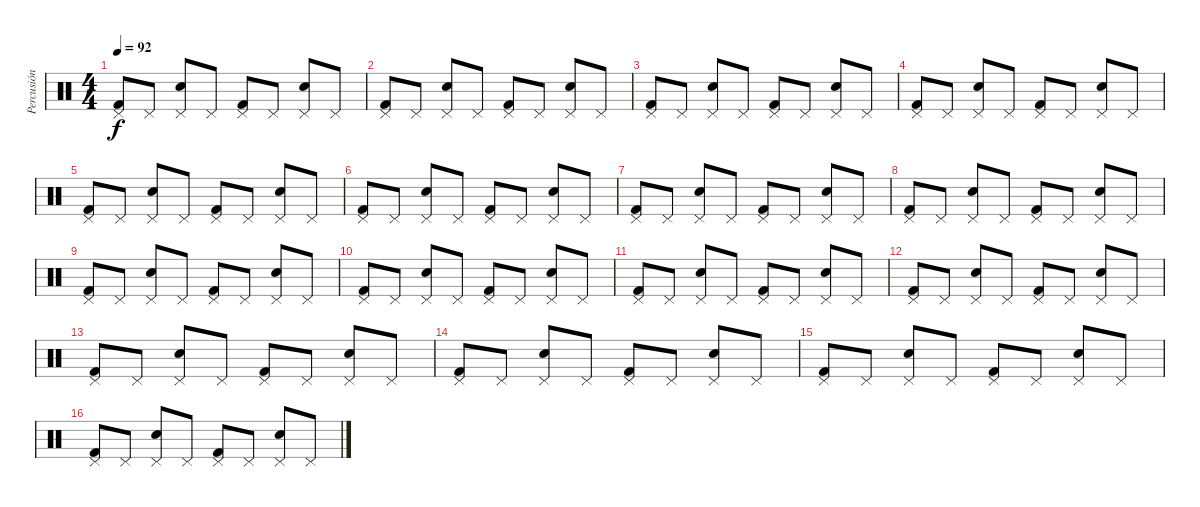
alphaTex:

\track ("Percusión" "Percusión") {instrument percussion}
\staff {score}
\articulation defaults
\ts (4 4)
\tempo 92
\clef neutral
\ks c
("Pedal Hi-Hat (hit)" "Kick (hit) 2").8{dy f} "Pedal Hi-Hat (hit)".8 ("Pedal Hi-Hat (hit)" "Snare (hit) 2").8 "Pedal Hi-Hat (hit)".8 ("Pedal Hi-Hat (hit)" "Kick (hit) 2").8 "Pedal Hi-Hat (hit)".8 ("Pedal Hi-Hat (hit)" "Snare (hit) 2").8 "Pedal Hi-Hat (hit)".8 |
("Pedal Hi-Hat (hit)" "Kick (hit) 2").8 "Pedal Hi-Hat (hit)".8 ("Pedal Hi-Hat (hit)" "Snare (hit) 2").8 "Pedal Hi-Hat (hit)".8 ("Pedal Hi-Hat (hit)" "Kick (hit) 2").8 "Pedal Hi-Hat (hit)".8 ("Pedal Hi-Hat (hit)" "Snare (hit) 2").8 "Pedal Hi-Hat (hit)".8 |
("Pedal Hi-Hat (hit)" "Kick (hit) 2").8 "Pedal Hi-Hat (hit)".8 ("Pedal Hi-Hat (hit)" "Snare (hit) 2").8 "Pedal Hi-Hat (hit)".8 ("Pedal Hi-Hat (hit)" "Kick (hit) 2").8 "Pedal Hi-Hat (hit)".8 ("Pedal Hi-Hat (hit)" "Snare (hit) 2").8 "Pedal Hi-Hat (hit)".8 |
("Pedal Hi-Hat (hit)" "Kick (hit) 2").8 "Pedal Hi-Hat (hit)".8 ("Pedal Hi-Hat (hit)" "Snare (hit) 2").8 "Pedal Hi-Hat (hit)".8 ("Pedal Hi-Hat (hit)" "Kick (hit) 2").8 "Pedal Hi-Hat (hit)".8 ("Pedal Hi-Hat (hit)" "Snare (hit) 2").8 "Pedal Hi-Hat (hit)".8 |
("Pedal Hi-Hat (hit)" "Kick (hit) 2").8 "Pedal Hi-Hat (hit)".8 ("Pedal Hi-Hat (hit)" "Snare (hit) 2").8 "Pedal Hi-Hat (hit)".8 ("Pedal Hi-Hat (hit)" "Kick (hit) 2").8 "Pedal Hi-Hat (hit)".8 ("Pedal Hi-Hat (hit)" "Snare (hit) 2").8 "Pedal Hi-Hat (hit)".8 |
("Pedal Hi-Hat (hit)" "Kick (hit) 2").8 "Pedal Hi-Hat (hit)".8 ("Pedal Hi-Hat (hit)" "Snare (hit) 2").8 "Pedal Hi-Hat (hit)".8 ("Pedal Hi-Hat (hit)" "Kick (hit) 2").8 "Pedal Hi-Hat (hit)".8 ("Pedal Hi-Hat (hit)" "Snare (hit) 2").8 "Pedal Hi-Hat (hit)".8 |
("Pedal Hi-Hat (hit)" "Kick (hit) 2").8 "Pedal Hi-Hat (hit)".8 ("Pedal Hi-Hat (hit)" "Snare (hit) 2").8 "Pedal Hi-Hat (hit)".8 ("Pedal Hi-Hat (hit)" "Kick (hit) 2").8 "Pedal Hi-Hat (hit)".8 ("Pedal Hi-Hat (hit)" "Snare (hit) 2").8 "Pedal Hi-Hat (hit)".8 |
("Pedal Hi-Hat (hit)" "Kick (hit) 2").8 "Pedal Hi-Hat (hit)".8 ("Pedal Hi-Hat (hit)" "Snare (hit) 2").8 "Pedal Hi-Hat (hit)".8 ("Pedal Hi-Hat (hit)" "Kick (hit) 2").8 "Pedal Hi-Hat (hit)".8 ("Pedal Hi-Hat (hit)" "Snare (hit) 2").8 "Pedal Hi-Hat (hit)".8 |
("Pedal Hi-Hat (hit)" "Kick (hit) 2").8 "Pedal Hi-Hat (hit)".8 ("Pedal Hi-Hat (hit)" "Snare (hit) 2").8 "Pedal Hi-Hat (hit)".8 ("Pedal Hi-Hat (hit)" "Kick (hit) 2").8 "Pedal Hi-Hat (hit)".8 ("Pedal Hi-Hat (hit)" "Snare (hit) 2").8 "Pedal Hi-Hat (hit)".8 |
("Pedal Hi-Hat (hit)" "Kick (hit) 2").8 "Pedal Hi-Hat (hit)".8 ("Pedal Hi-Hat (hit)" "Snare (hit) 2").8 "Pedal Hi-Hat (hit)".8 ("Pedal Hi-Hat (hit)" "Kick (hit) 2").8 "Pedal Hi-Hat (hit)".8 ("Pedal Hi-Hat (hit)" "Snare (hit) 2").8 "Pedal Hi-Hat (hit)".8 |
("Pedal Hi-Hat (hit)" "Kick (hit) 2").8 "Pedal Hi-Hat (hit)".8 ("Pedal Hi-Hat (hit)" "Snare (hit) 2").8 "Pedal Hi-Hat (hit)".8 ("Pedal Hi-Hat (hit)" "Kick (hit) 2").8 "Pedal Hi-Hat (hit)".8 ("Pedal Hi-Hat (hit)" "Snare (hit) 2").8 "Pedal Hi-Hat (hit)".8 |
("Pedal Hi-Hat (hit)" "Kick (hit) 2").8 "Pedal Hi-Hat (hit)".8 ("Pedal Hi-Hat (hit)" "Snare (hit) 2").8 "Pedal Hi-Hat (hit)".8 ("Pedal Hi-Hat (hit)" "Kick (hit) 2").8 "Pedal Hi-Hat (hit)".8 ("Pedal Hi-Hat (hit)" "Snare (hit) 2").8 "Pedal Hi-Hat (hit)".8 |
("Pedal Hi-Hat (hit)" "Kick (hit) 2").8 "Pedal Hi-Hat (hit)".8 ("Pedal Hi-Hat (hit)" "Snare (hit) 2").8 "Pedal Hi-Hat (hit)".8 ("Pedal Hi-Hat (hit)" "Kick (hit) 2").8 "Pedal Hi-Hat (hit)".8 ("Pedal Hi-Hat (hit)" "Snare (hit) 2").8 "Pedal Hi-Hat (hit)".8 |
("Pedal Hi-Hat (hit)" "Kick (hit) 2").8 "Pedal Hi-Hat (hit)".8 ("Pedal Hi-Hat (hit)" "Snare (hit) 2").8 "Pedal Hi-Hat (hit)".8 ("Pedal Hi-Hat (hit)" "Kick (hit) 2").8 "Pedal Hi-Hat (hit)".8 ("Pedal Hi-Hat (hit)" "Snare (hit) 2").8 "Pedal Hi-Hat (hit)".8 |
("Pedal Hi-Hat (hit)" "Kick (hit) 2").8 "Pedal Hi-Hat (hit)".8 ("Pedal Hi-Hat (hit)" "Snare (hit) 2").8 "Pedal Hi-Hat (hit)".8 ("Pedal Hi-Hat (hit)" "Kick (hit) 2").8 "Pedal Hi-Hat (hit)".8 ("Pedal Hi-Hat (hit)" "Snare (hit) 2").8 "Pedal Hi-Hat (hit)".8 |
("Pedal Hi-Hat (hit)" "Kick (hit) 2").8 "Pedal Hi-Hat (hit)".8 ("Pedal Hi-Hat (hit)" "Snare (hit) 2").8 "Pedal Hi-Hat (hit)".8 ("Pedal Hi-Hat (hit)" "Kick (hit) 2").8 "Pedal Hi-Hat (hit)".8 ("Pedal Hi-Hat (hit)" "Snare (hit) 2").8 "Pedal Hi-Hat (hit)".8
